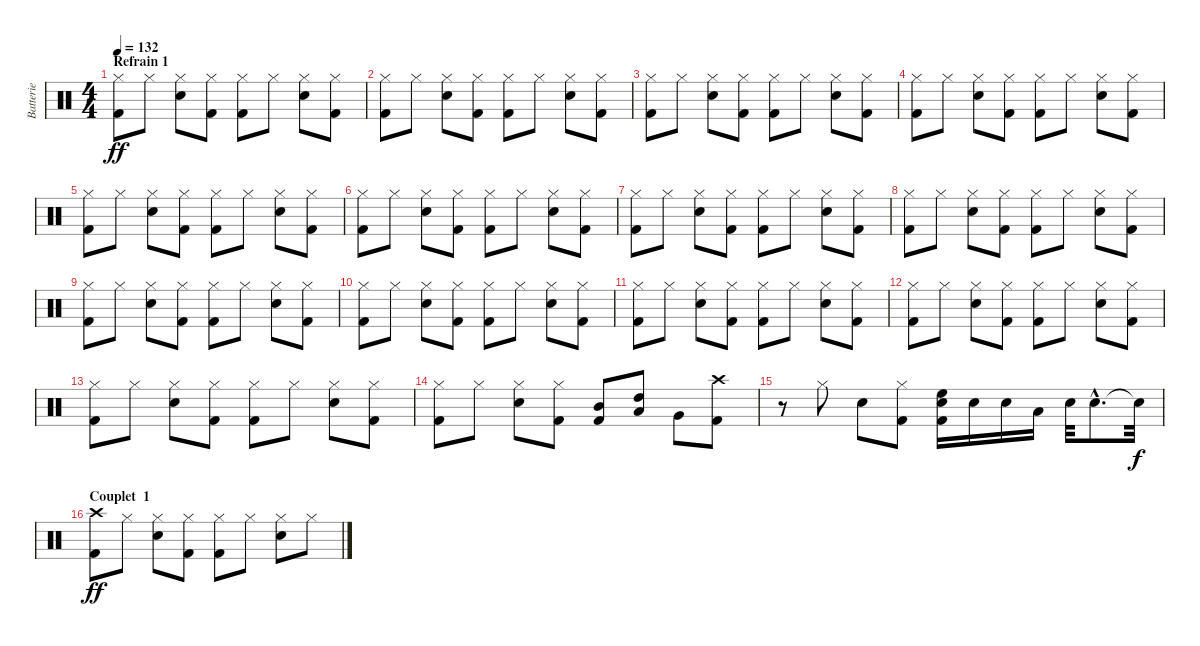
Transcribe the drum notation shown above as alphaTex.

\track ("Batterie" "Batterie") {instrument percussion}
\staff {score}
\articulation defaults
\ts (4 4)
\section ("" "Refrain 1")
\tempo 132
\clef neutral
\ks c
("Kick (hit) 2" "Hi-Hat (closed)").8{dy ff} "Hi-Hat (closed)".8 ("Snare (hit) 2" "Hi-Hat (closed)").8 ("Kick (hit) 2" "Hi-Hat (closed)").8 ("Kick (hit) 2" "Hi-Hat (closed)").8 "Hi-Hat (closed)".8 ("Snare (hit) 2" "Hi-Hat (closed)").8 ("Kick (hit) 2" "Hi-Hat (closed)").8 |
("Kick (hit) 2" "Hi-Hat (closed)").8 "Hi-Hat (closed)".8 ("Snare (hit) 2" "Hi-Hat (closed)").8 ("Kick (hit) 2" "Hi-Hat (closed)").8 ("Kick (hit) 2" "Hi-Hat (closed)").8 "Hi-Hat (closed)".8 ("Snare (hit) 2" "Hi-Hat (closed)").8 ("Kick (hit) 2" "Hi-Hat (closed)").8 |
("Kick (hit) 2" "Hi-Hat (closed)").8 "Hi-Hat (closed)".8 ("Snare (hit) 2" "Hi-Hat (closed)").8 ("Kick (hit) 2" "Hi-Hat (closed)").8 ("Kick (hit) 2" "Hi-Hat (closed)").8 "Hi-Hat (closed)".8 ("Snare (hit) 2" "Hi-Hat (closed)").8 ("Kick (hit) 2" "Hi-Hat (closed)").8 |
("Kick (hit) 2" "Hi-Hat (closed)").8 "Hi-Hat (closed)".8 ("Snare (hit) 2" "Hi-Hat (closed)").8 ("Kick (hit) 2" "Hi-Hat (closed)").8 ("Kick (hit) 2" "Hi-Hat (closed)").8 "Hi-Hat (closed)".8 ("Snare (hit) 2" "Hi-Hat (closed)").8 ("Kick (hit) 2" "Hi-Hat (closed)").8 |
("Kick (hit) 2" "Hi-Hat (closed)").8 "Hi-Hat (closed)".8 ("Snare (hit) 2" "Hi-Hat (closed)").8 ("Kick (hit) 2" "Hi-Hat (closed)").8 ("Kick (hit) 2" "Hi-Hat (closed)").8 "Hi-Hat (closed)".8 ("Snare (hit) 2" "Hi-Hat (closed)").8 ("Kick (hit) 2" "Hi-Hat (closed)").8 |
("Kick (hit) 2" "Hi-Hat (closed)").8 "Hi-Hat (closed)".8 ("Snare (hit) 2" "Hi-Hat (closed)").8 ("Kick (hit) 2" "Hi-Hat (closed)").8 ("Kick (hit) 2" "Hi-Hat (closed)").8 "Hi-Hat (closed)".8 ("Snare (hit) 2" "Hi-Hat (closed)").8 ("Kick (hit) 2" "Hi-Hat (closed)").8 |
("Kick (hit) 2" "Hi-Hat (closed)").8 "Hi-Hat (closed)".8 ("Snare (hit) 2" "Hi-Hat (closed)").8 ("Kick (hit) 2" "Hi-Hat (closed)").8 ("Kick (hit) 2" "Hi-Hat (closed)").8 "Hi-Hat (closed)".8 ("Snare (hit) 2" "Hi-Hat (closed)").8 ("Kick (hit) 2" "Hi-Hat (closed)").8 |
("Kick (hit) 2" "Hi-Hat (closed)").8 "Hi-Hat (closed)".8 ("Snare (hit) 2" "Hi-Hat (closed)").8 ("Kick (hit) 2" "Hi-Hat (closed)").8 ("Kick (hit) 2" "Hi-Hat (closed)").8 "Hi-Hat (closed)".8 ("Snare (hit) 2" "Hi-Hat (closed)").8 ("Kick (hit) 2" "Hi-Hat (closed)").8 |
("Kick (hit) 2" "Hi-Hat (closed)").8 "Hi-Hat (closed)".8 ("Snare (hit) 2" "Hi-Hat (closed)").8 ("Kick (hit) 2" "Hi-Hat (closed)").8 ("Kick (hit) 2" "Hi-Hat (closed)").8 "Hi-Hat (closed)".8 ("Snare (hit) 2" "Hi-Hat (closed)").8 ("Kick (hit) 2" "Hi-Hat (closed)").8 |
("Kick (hit) 2" "Hi-Hat (closed)").8 "Hi-Hat (closed)".8 ("Snare (hit) 2" "Hi-Hat (closed)").8 ("Kick (hit) 2" "Hi-Hat (closed)").8 ("Kick (hit) 2" "Hi-Hat (closed)").8 "Hi-Hat (closed)".8 ("Snare (hit) 2" "Hi-Hat (closed)").8 ("Kick (hit) 2" "Hi-Hat (closed)").8 |
("Kick (hit) 2" "Hi-Hat (closed)").8 "Hi-Hat (closed)".8 ("Snare (hit) 2" "Hi-Hat (closed)").8 ("Kick (hit) 2" "Hi-Hat (closed)").8 ("Kick (hit) 2" "Hi-Hat (closed)").8 "Hi-Hat (closed)".8 ("Snare (hit) 2" "Hi-Hat (closed)").8 ("Kick (hit) 2" "Hi-Hat (closed)").8 |
("Kick (hit) 2" "Hi-Hat (closed)").8 "Hi-Hat (closed)".8 ("Snare (hit) 2" "Hi-Hat (closed)").8 ("Kick (hit) 2" "Hi-Hat (closed)").8 ("Kick (hit) 2" "Hi-Hat (closed)").8 "Hi-Hat (closed)".8 ("Snare (hit) 2" "Hi-Hat (closed)").8 ("Kick (hit) 2" "Hi-Hat (closed)").8 |
("Kick (hit) 2" "Hi-Hat (closed)").8 "Hi-Hat (closed)".8 ("Snare (hit) 2" "Hi-Hat (closed)").8 ("Kick (hit) 2" "Hi-Hat (closed)").8 ("Kick (hit) 2" "Hi-Hat (closed)").8 "Hi-Hat (closed)".8 ("Snare (hit) 2" "Hi-Hat (closed)").8 ("Kick (hit) 2" "Hi-Hat (closed)").8 |
("Kick (hit) 2" "Hi-Hat (closed)").8 "Hi-Hat (closed)".8 ("Snare (hit) 2" "Hi-Hat (closed)").8 ("Kick (hit) 2" "Hi-Hat (closed)").8 ("Kick (hit) 2" "Mid Tom (hit)").8 ("Low Tom (hit)" "High Tom (hit)").8 "Very Low Tom (hit)".8 ("Kick (hit) 2" "Crash high (hit)").8 |
r.8 "Hi-Hat (closed)".8 "Snare (hit) 2".8 ("Kick (hit) 2" "Hi-Hat (closed)").8 ("Kick (hit) 2" "Snare (hit) 2" "High Floor Tom (hit)").16 "Snare (hit) 2".16 "Snare (hit) 2".16 "Low Tom (hit)".16 "Snare (hit) 2".32 "Snare (hit) 2"{hac}.8{d} "Snare (hit)"{t}.32{dy f} |
\section ("" "Couplet  1")
("Kick (hit) 2" "Crash high (hit)").8{dy ff} "Hi-Hat (closed)".8 ("Snare (hit) 2" "Hi-Hat (closed)").8 ("Kick (hit) 2" "Hi-Hat (closed)").8 ("Kick (hit) 2" "Hi-Hat (closed)").8 "Hi-Hat (closed)".8 ("Snare (hit) 2" "Hi-Hat (closed)").8 "Hi-Hat (closed)".8
